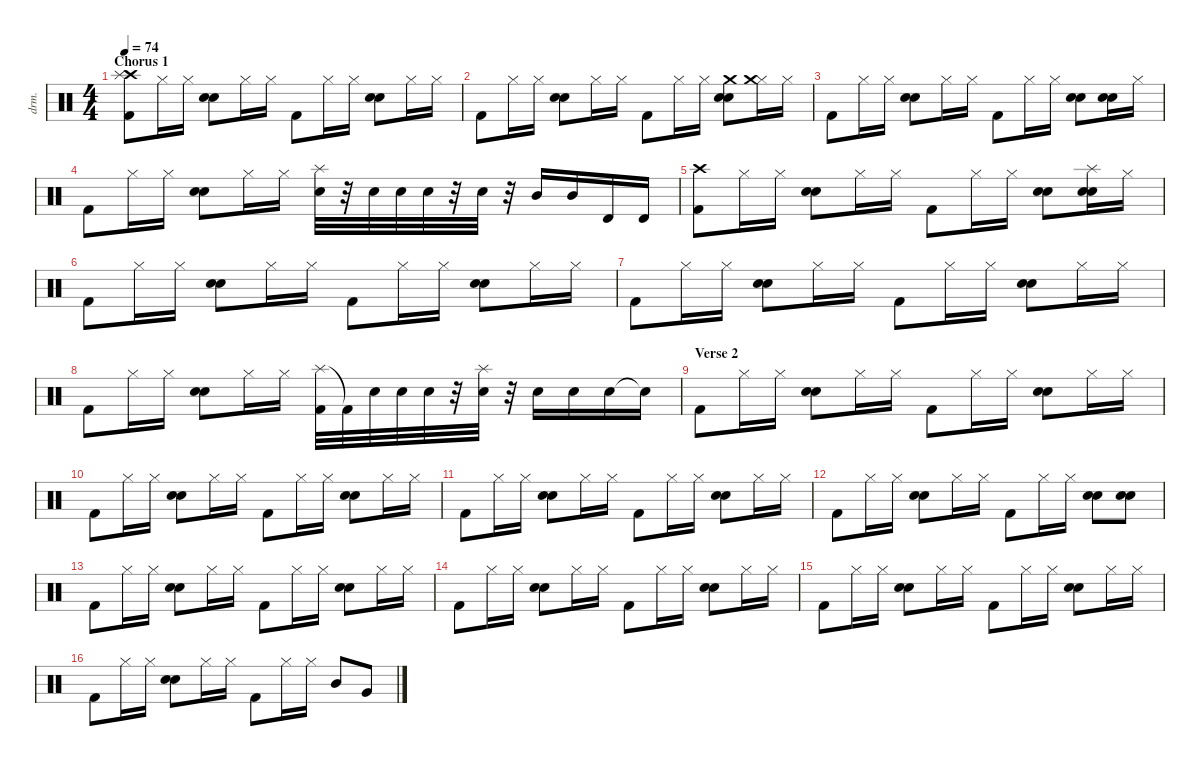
\defaultSystemsLayout 4
\hideDynamics
\bracketExtendMode nobrackets
\otherSystemsTrackNameOrientation horizontal
\track ("Percussion" "drm.") {instrument percussion}
\staff {score}
\articulation defaults
\ts (4 4)
\section ("" "Chorus 1")
\tempo 74
\clef neutral
\ks c
("Crash high (hit)" "Splash (hit)" "Kick (hit) 2").8{dy f} "Hi-Hat (closed)".16 "Hi-Hat (closed)".16 ("Snare (hit) 2" "Snare (hit) 2").8 "Hi-Hat (closed)".16 "Hi-Hat (closed)".16 "Kick (hit) 2".8 "Hi-Hat (closed)".16 "Hi-Hat (closed)".16 ("Snare (hit) 2" "Snare (hit) 2").8 "Hi-Hat (closed)".16 "Hi-Hat (closed)".16 |
"Kick (hit) 2".8 "Hi-Hat (closed)".16 "Hi-Hat (closed)".16 ("Snare (hit) 2" "Snare (hit) 2").8 "Hi-Hat (closed)".16 "Hi-Hat (closed)".16 "Kick (hit) 2".8 "Hi-Hat (closed)".16 "Hi-Hat (closed)".16 ("Snare (hit) 2" "Snare (hit) 2" "Crash medium (hit)").8 ("Hi-Hat (closed)" "Crash medium (hit)").16 "Hi-Hat (closed)".16 |
"Kick (hit) 2".8 "Hi-Hat (closed)".16 "Hi-Hat (closed)".16 ("Snare (hit) 2" "Snare (hit) 2").8 "Hi-Hat (closed)".16 "Hi-Hat (closed)".16 "Kick (hit) 2".8 "Hi-Hat (closed)".16 "Hi-Hat (closed)".16 ("Snare (hit) 2" "Snare (hit) 2").8 ("Snare (hit) 2" "Snare (hit) 2").16 "Hi-Hat (closed)".16 |
"Kick (hit) 2".8 "Hi-Hat (closed)".16 "Hi-Hat (closed)".16 ("Snare (hit) 2" "Snare (hit) 2").8 "Hi-Hat (closed)".16 "Hi-Hat (closed)".16 ("Snare (hit) 2" "Splash (hit)").32 r.32 "Snare (hit) 2".32 "Snare (hit) 2".32 "Snare (hit) 2".32 r.32 "Snare (hit) 2".32 r.32 "Mid Tom (hit)".16 "Mid Tom (hit)".16 "Timbale high (hit)".16 "Timbale high (hit)".16 |
("Crash high (hit)" "Kick (hit) 2").8 "Hi-Hat (closed)".16 "Hi-Hat (closed)".16 ("Snare (hit) 2" "Snare (hit) 2").8 "Hi-Hat (closed)".16 "Hi-Hat (closed)".16 "Kick (hit) 2".8 "Hi-Hat (closed)".16 "Hi-Hat (closed)".16 ("Snare (hit) 2" "Snare (hit) 2").8 ("Splash (hit)" "Snare (hit) 2" "Snare (hit) 2").16 "Hi-Hat (closed)".16 |
"Kick (hit) 2".8 "Hi-Hat (closed)".16 "Hi-Hat (closed)".16 ("Snare (hit) 2" "Snare (hit) 2").8 "Hi-Hat (closed)".16 "Hi-Hat (closed)".16 "Kick (hit) 2".8 "Hi-Hat (closed)".16 "Hi-Hat (closed)".16 ("Snare (hit) 2" "Snare (hit) 2").8 "Hi-Hat (closed)".16 "Hi-Hat (closed)".16 |
"Kick (hit) 2".8 "Hi-Hat (closed)".16 "Hi-Hat (closed)".16 ("Snare (hit) 2" "Snare (hit) 2").8 "Hi-Hat (closed)".16 "Hi-Hat (closed)".16 "Kick (hit) 2".8 "Hi-Hat (closed)".16 "Hi-Hat (closed)".16 ("Snare (hit) 2" "Snare (hit) 2").8 "Hi-Hat (closed)".16 "Hi-Hat (closed)".16 |
"Kick (hit) 2".8 "Hi-Hat (closed)".16 "Hi-Hat (closed)".16 ("Snare (hit) 2" "Snare (hit) 2").8 "Hi-Hat (closed)".16 "Hi-Hat (closed)".16 ("Splash (hit)" "Kick (hit) 2").32 "Kick (hit) 2"{t}.32 "Snare (hit) 2".32 "Snare (hit) 2".32 "Snare (hit) 2".32 r.32 ("Snare (hit) 2" "Splash (hit)").32 r.32 "Snare (hit) 2".16 "Snare (hit) 2".16 "Snare (hit) 2".16 "Snare (hit) 2"{t}.16 |
\section ("" "Verse 2")
"Kick (hit) 2".8 "Hi-Hat (closed)".16 "Hi-Hat (closed)".16 ("Snare (hit) 2" "Snare (hit) 2").8 "Hi-Hat (closed)".16 "Hi-Hat (closed)".16 "Kick (hit) 2".8 "Hi-Hat (closed)".16 "Hi-Hat (closed)".16 ("Snare (hit) 2" "Snare (hit) 2").8 "Hi-Hat (closed)".16 "Hi-Hat (closed)".16 |
"Kick (hit) 2".8 "Hi-Hat (closed)".16 "Hi-Hat (closed)".16 ("Snare (hit) 2" "Snare (hit) 2").8 "Hi-Hat (closed)".16 "Hi-Hat (closed)".16 "Kick (hit) 2".8 "Hi-Hat (closed)".16 "Hi-Hat (closed)".16 ("Snare (hit) 2" "Snare (hit) 2").8 "Hi-Hat (closed)".16 "Hi-Hat (closed)".16 |
"Kick (hit) 2".8 "Hi-Hat (closed)".16 "Hi-Hat (closed)".16 ("Snare (hit) 2" "Snare (hit) 2").8 "Hi-Hat (closed)".16 "Hi-Hat (closed)".16 "Kick (hit) 2".8 "Hi-Hat (closed)".16 "Hi-Hat (closed)".16 ("Snare (hit) 2" "Snare (hit) 2").8 "Hi-Hat (closed)".16 "Hi-Hat (closed)".16 |
"Kick (hit) 2".8 "Hi-Hat (closed)".16 "Hi-Hat (closed)".16 ("Snare (hit) 2" "Snare (hit) 2").8 "Hi-Hat (closed)".16 "Hi-Hat (closed)".16 "Kick (hit) 2".8 "Hi-Hat (closed)".16 "Hi-Hat (closed)".16 ("Snare (hit) 2" "Snare (hit) 2").8 ("Snare (hit) 2" "Snare (hit) 2").8 |
"Kick (hit) 2".8 "Hi-Hat (closed)".16 "Hi-Hat (closed)".16 ("Snare (hit) 2" "Snare (hit) 2").8 "Hi-Hat (closed)".16 "Hi-Hat (closed)".16 "Kick (hit) 2".8 "Hi-Hat (closed)".16 "Hi-Hat (closed)".16 ("Snare (hit) 2" "Snare (hit) 2").8 "Hi-Hat (closed)".16 "Hi-Hat (closed)".16 |
"Kick (hit) 2".8 "Hi-Hat (closed)".16 "Hi-Hat (closed)".16 ("Snare (hit) 2" "Snare (hit) 2").8 "Hi-Hat (closed)".16 "Hi-Hat (closed)".16 "Kick (hit) 2".8 "Hi-Hat (closed)".16 "Hi-Hat (closed)".16 ("Snare (hit) 2" "Snare (hit) 2").8 "Hi-Hat (closed)".16 "Hi-Hat (closed)".16 |
"Kick (hit) 2".8 "Hi-Hat (closed)".16 "Hi-Hat (closed)".16 ("Snare (hit) 2" "Snare (hit) 2").8 "Hi-Hat (closed)".16 "Hi-Hat (closed)".16 "Kick (hit) 2".8 "Hi-Hat (closed)".16 "Hi-Hat (closed)".16 ("Snare (hit) 2" "Snare (hit) 2").8 "Hi-Hat (closed)".16 "Hi-Hat (closed)".16 |
"Kick (hit) 2".8 "Hi-Hat (closed)".16 "Hi-Hat (closed)".16 ("Snare (hit) 2" "Snare (hit) 2").8 "Hi-Hat (closed)".16 "Hi-Hat (closed)".16 "Kick (hit) 2".8 "Hi-Hat (closed)".16 "Hi-Hat (closed)".16 "Mid Tom (hit)".8 "Very Low Tom (hit)".8
